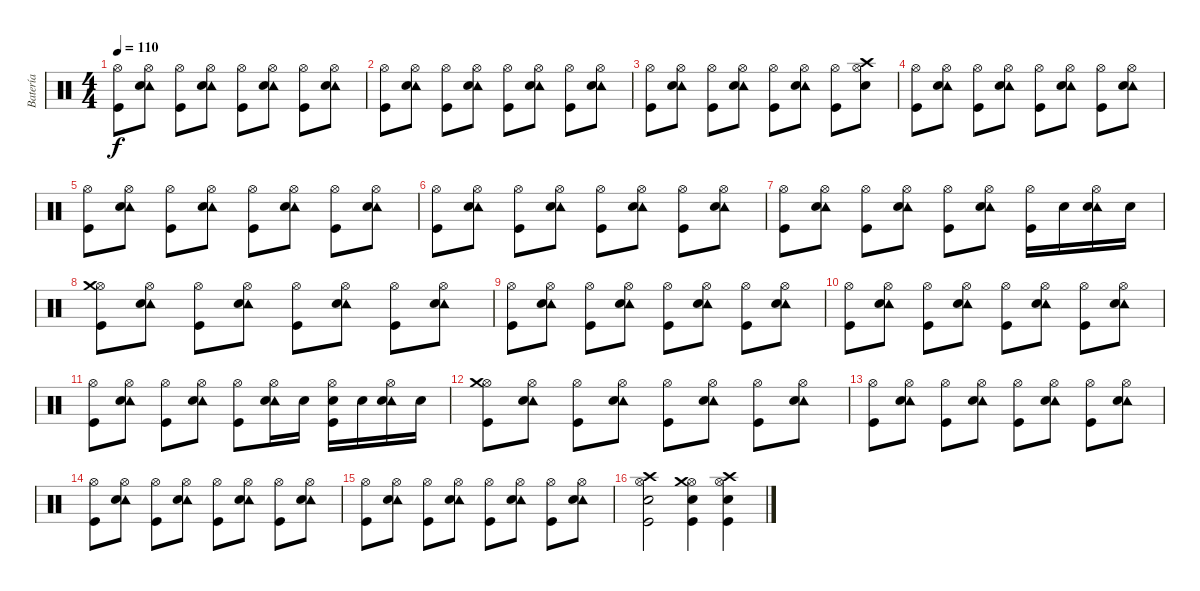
\track ("Batería" "Batería") {instrument percussion}
\staff {score}
\articulation defaults
\ts (4 4)
\tempo 110
\clef neutral
\ks c
("Hi-Hat (open)" "Kick (hit)").8{dy f} ("Hi-Hat (open)" "Tambourine (hit)" "Electric Snare (hit)").8 ("Hi-Hat (open)" "Kick (hit)").8 ("Hi-Hat (open)" "Tambourine (hit)" "Electric Snare (hit)").8 ("Hi-Hat (open)" "Kick (hit)").8 ("Hi-Hat (open)" "Tambourine (hit)" "Electric Snare (hit)").8 ("Hi-Hat (open)" "Kick (hit)").8 ("Hi-Hat (open)" "Tambourine (hit)" "Electric Snare (hit)").8 |
("Hi-Hat (open)" "Kick (hit)").8 ("Hi-Hat (open)" "Tambourine (hit)" "Electric Snare (hit)").8 ("Hi-Hat (open)" "Kick (hit)").8 ("Hi-Hat (open)" "Tambourine (hit)" "Electric Snare (hit)").8 ("Hi-Hat (open)" "Kick (hit)").8 ("Hi-Hat (open)" "Tambourine (hit)" "Electric Snare (hit)").8 ("Hi-Hat (open)" "Kick (hit)").8 ("Hi-Hat (open)" "Tambourine (hit)" "Electric Snare (hit)").8 |
("Hi-Hat (open)" "Kick (hit)").8 ("Hi-Hat (open)" "Tambourine (hit)" "Electric Snare (hit)").8 ("Hi-Hat (open)" "Kick (hit)").8 ("Hi-Hat (open)" "Tambourine (hit)" "Electric Snare (hit)").8 ("Hi-Hat (open)" "Kick (hit)").8 ("Hi-Hat (open)" "Tambourine (hit)" "Electric Snare (hit)").8 ("Hi-Hat (open)" "Kick (hit)").8 ("Hi-Hat (open)" "Crash high (hit)" "Electric Snare (hit)").8 |
("Hi-Hat (open)" "Kick (hit)").8 ("Hi-Hat (open)" "Tambourine (hit)" "Electric Snare (hit)").8 ("Hi-Hat (open)" "Kick (hit)").8 ("Hi-Hat (open)" "Tambourine (hit)" "Electric Snare (hit)").8 ("Hi-Hat (open)" "Kick (hit)").8 ("Hi-Hat (open)" "Tambourine (hit)" "Electric Snare (hit)").8 ("Hi-Hat (open)" "Kick (hit)").8 ("Hi-Hat (open)" "Tambourine (hit)" "Electric Snare (hit)").8 |
("Hi-Hat (open)" "Kick (hit)").8 ("Hi-Hat (open)" "Tambourine (hit)" "Electric Snare (hit)").8 ("Hi-Hat (open)" "Kick (hit)").8 ("Hi-Hat (open)" "Tambourine (hit)" "Electric Snare (hit)").8 ("Hi-Hat (open)" "Kick (hit)").8 ("Hi-Hat (open)" "Tambourine (hit)" "Electric Snare (hit)").8 ("Hi-Hat (open)" "Kick (hit)").8 ("Hi-Hat (open)" "Tambourine (hit)" "Electric Snare (hit)").8 |
("Hi-Hat (open)" "Kick (hit)").8 ("Hi-Hat (open)" "Tambourine (hit)" "Electric Snare (hit)").8 ("Hi-Hat (open)" "Kick (hit)").8 ("Hi-Hat (open)" "Tambourine (hit)" "Electric Snare (hit)").8 ("Hi-Hat (open)" "Kick (hit)").8 ("Hi-Hat (open)" "Tambourine (hit)" "Electric Snare (hit)").8 ("Hi-Hat (open)" "Kick (hit)").8 ("Hi-Hat (open)" "Tambourine (hit)" "Electric Snare (hit)").8 |
("Hi-Hat (open)" "Kick (hit)").8 ("Hi-Hat (open)" "Tambourine (hit)" "Electric Snare (hit)").8 ("Hi-Hat (open)" "Kick (hit)").8 ("Hi-Hat (open)" "Tambourine (hit)" "Electric Snare (hit)").8 ("Hi-Hat (open)" "Kick (hit)").8 ("Hi-Hat (open)" "Tambourine (hit)" "Electric Snare (hit)").8 ("Hi-Hat (open)" "Kick (hit)").16 "Electric Snare (hit)".16 ("Hi-Hat (open)" "Tambourine (hit)" "Electric Snare (hit)").16 "Electric Snare (hit)".16 |
("Hi-Hat (open)" "Crash medium (hit)" "Kick (hit)").8 ("Hi-Hat (open)" "Tambourine (hit)" "Electric Snare (hit)").8 ("Hi-Hat (open)" "Kick (hit)").8 ("Hi-Hat (open)" "Tambourine (hit)" "Electric Snare (hit)").8 ("Hi-Hat (open)" "Kick (hit)").8 ("Hi-Hat (open)" "Tambourine (hit)" "Electric Snare (hit)").8 ("Hi-Hat (open)" "Kick (hit)").8 ("Hi-Hat (open)" "Tambourine (hit)" "Electric Snare (hit)").8 |
("Hi-Hat (open)" "Kick (hit)").8 ("Hi-Hat (open)" "Tambourine (hit)" "Electric Snare (hit)").8 ("Hi-Hat (open)" "Kick (hit)").8 ("Hi-Hat (open)" "Tambourine (hit)" "Electric Snare (hit)").8 ("Hi-Hat (open)" "Kick (hit)").8 ("Hi-Hat (open)" "Tambourine (hit)" "Electric Snare (hit)").8 ("Hi-Hat (open)" "Kick (hit)").8 ("Hi-Hat (open)" "Tambourine (hit)" "Electric Snare (hit)").8 |
("Hi-Hat (open)" "Kick (hit)").8 ("Hi-Hat (open)" "Tambourine (hit)" "Electric Snare (hit)").8 ("Hi-Hat (open)" "Kick (hit)").8 ("Hi-Hat (open)" "Tambourine (hit)" "Electric Snare (hit)").8 ("Hi-Hat (open)" "Kick (hit)").8 ("Hi-Hat (open)" "Tambourine (hit)" "Electric Snare (hit)").8 ("Hi-Hat (open)" "Kick (hit)").8 ("Hi-Hat (open)" "Tambourine (hit)" "Electric Snare (hit)").8 |
("Hi-Hat (open)" "Kick (hit)").8 ("Hi-Hat (open)" "Tambourine (hit)" "Electric Snare (hit)").8 ("Hi-Hat (open)" "Kick (hit)").8 ("Hi-Hat (open)" "Tambourine (hit)" "Electric Snare (hit)").8 ("Hi-Hat (open)" "Kick (hit)").8 ("Hi-Hat (open)" "Tambourine (hit)" "Electric Snare (hit)").16 "Electric Snare (hit)".16 ("Hi-Hat (open)" "Electric Snare (hit)" "Kick (hit)").16 "Electric Snare (hit)".16 ("Hi-Hat (open)" "Tambourine (hit)" "Electric Snare (hit)").16 "Electric Snare (hit)".16 |
("Hi-Hat (open)" "Crash medium (hit)" "Kick (hit)").8 ("Hi-Hat (open)" "Tambourine (hit)" "Electric Snare (hit)").8 ("Hi-Hat (open)" "Kick (hit)").8 ("Hi-Hat (open)" "Tambourine (hit)" "Electric Snare (hit)").8 ("Hi-Hat (open)" "Kick (hit)").8 ("Hi-Hat (open)" "Tambourine (hit)" "Electric Snare (hit)").8 ("Hi-Hat (open)" "Kick (hit)").8 ("Hi-Hat (open)" "Tambourine (hit)" "Electric Snare (hit)").8 |
("Hi-Hat (open)" "Kick (hit)").8 ("Hi-Hat (open)" "Tambourine (hit)" "Electric Snare (hit)").8 ("Hi-Hat (open)" "Kick (hit)").8 ("Hi-Hat (open)" "Tambourine (hit)" "Electric Snare (hit)").8 ("Hi-Hat (open)" "Kick (hit)").8 ("Hi-Hat (open)" "Tambourine (hit)" "Electric Snare (hit)").8 ("Hi-Hat (open)" "Kick (hit)").8 ("Hi-Hat (open)" "Tambourine (hit)" "Electric Snare (hit)").8 |
("Hi-Hat (open)" "Kick (hit)").8 ("Hi-Hat (open)" "Tambourine (hit)" "Electric Snare (hit)").8 ("Hi-Hat (open)" "Kick (hit)").8 ("Hi-Hat (open)" "Tambourine (hit)" "Electric Snare (hit)").8 ("Hi-Hat (open)" "Kick (hit)").8 ("Hi-Hat (open)" "Tambourine (hit)" "Electric Snare (hit)").8 ("Hi-Hat (open)" "Kick (hit)").8 ("Hi-Hat (open)" "Tambourine (hit)" "Electric Snare (hit)").8 |
("Hi-Hat (open)" "Kick (hit)").8 ("Hi-Hat (open)" "Tambourine (hit)" "Electric Snare (hit)").8 ("Hi-Hat (open)" "Kick (hit)").8 ("Hi-Hat (open)" "Tambourine (hit)" "Electric Snare (hit)").8 ("Hi-Hat (open)" "Kick (hit)").8 ("Hi-Hat (open)" "Tambourine (hit)" "Electric Snare (hit)").8 ("Hi-Hat (open)" "Kick (hit)").8 ("Hi-Hat (open)" "Tambourine (hit)" "Electric Snare (hit)").8 |
("Hi-Hat (open)" "Crash high (hit)" "Electric Snare (hit)" "Kick (hit)").2 ("Hi-Hat (open)" "Crash medium (hit)" "Electric Snare (hit)" "Kick (hit)").4 ("Hi-Hat (open)" "Crash high (hit)" "Electric Snare (hit)" "Kick (hit)").4
